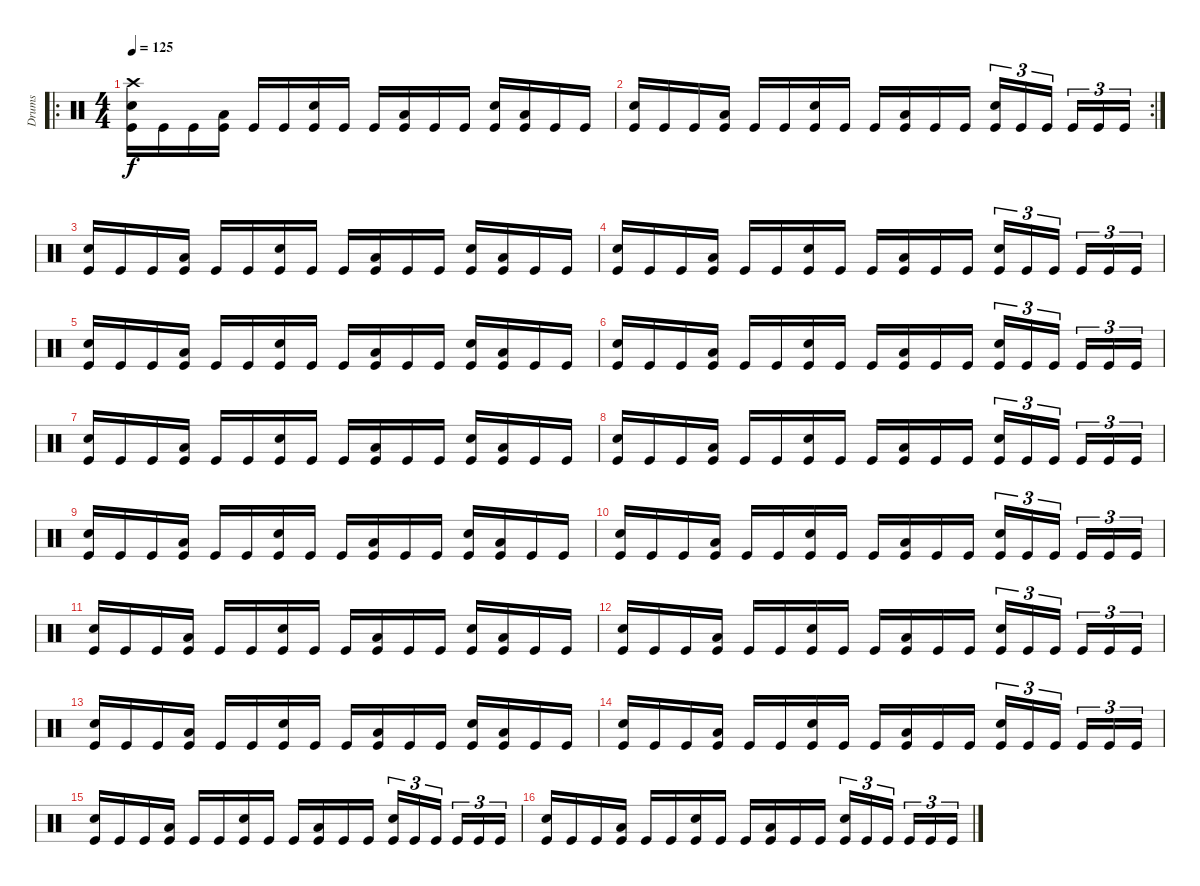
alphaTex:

\track ("Drums" "Drums") {instrument percussion}
\staff {score}
\articulation defaults
\ro
\ts (4 4)
\tempo 125
\clef neutral
\ks c
("Crash high (hit)" "Snare (hit) 2" "Kick (hit)").16{dy f} "Kick (hit)".16 "Kick (hit)".16 ("Low Floor Tom (hit)" "Kick (hit)").16 "Kick (hit)".16 "Kick (hit)".16 ("Snare (hit) 2" "Kick (hit)").16 "Kick (hit)".16 "Kick (hit)".16 ("Low Floor Tom (hit)" "Kick (hit)").16 "Kick (hit)".16 "Kick (hit)".16 ("Snare (hit) 2" "Kick (hit)").16 ("Low Floor Tom (hit)" "Kick (hit)").16 "Kick (hit)".16 "Kick (hit)".16 |
\rc 2
("Snare (hit) 2" "Kick (hit)").16 "Kick (hit)".16 "Kick (hit)".16 ("Low Floor Tom (hit)" "Kick (hit)").16 "Kick (hit)".16 "Kick (hit)".16 ("Snare (hit) 2" "Kick (hit)").16 "Kick (hit)".16 "Kick (hit)".16 ("Low Floor Tom (hit)" "Kick (hit)").16 "Kick (hit)".16 "Kick (hit)".16 ("Snare (hit) 2" "Kick (hit)").16{tu (3 2)} "Kick (hit)".16{tu (3 2)} "Kick (hit)".16{tu (3 2)} "Kick (hit)".16{tu (3 2)} "Kick (hit)".16{tu (3 2)} "Kick (hit)".16{tu (3 2)} |
("Snare (hit) 2" "Kick (hit)").16 "Kick (hit)".16 "Kick (hit)".16 ("Low Floor Tom (hit)" "Kick (hit)").16 "Kick (hit)".16 "Kick (hit)".16 ("Snare (hit) 2" "Kick (hit)").16 "Kick (hit)".16 "Kick (hit)".16 ("Low Floor Tom (hit)" "Kick (hit)").16 "Kick (hit)".16 "Kick (hit)".16 ("Snare (hit) 2" "Kick (hit)").16 ("Low Floor Tom (hit)" "Kick (hit)").16 "Kick (hit)".16 "Kick (hit)".16 |
("Snare (hit) 2" "Kick (hit)").16 "Kick (hit)".16 "Kick (hit)".16 ("Low Floor Tom (hit)" "Kick (hit)").16 "Kick (hit)".16 "Kick (hit)".16 ("Snare (hit) 2" "Kick (hit)").16 "Kick (hit)".16 "Kick (hit)".16 ("Low Floor Tom (hit)" "Kick (hit)").16 "Kick (hit)".16 "Kick (hit)".16 ("Snare (hit) 2" "Kick (hit)").16{tu (3 2)} "Kick (hit)".16{tu (3 2)} "Kick (hit)".16{tu (3 2)} "Kick (hit)".16{tu (3 2)} "Kick (hit)".16{tu (3 2)} "Kick (hit)".16{tu (3 2)} |
("Snare (hit) 2" "Kick (hit)").16 "Kick (hit)".16 "Kick (hit)".16 ("Low Floor Tom (hit)" "Kick (hit)").16 "Kick (hit)".16 "Kick (hit)".16 ("Snare (hit) 2" "Kick (hit)").16 "Kick (hit)".16 "Kick (hit)".16 ("Low Floor Tom (hit)" "Kick (hit)").16 "Kick (hit)".16 "Kick (hit)".16 ("Snare (hit) 2" "Kick (hit)").16 ("Low Floor Tom (hit)" "Kick (hit)").16 "Kick (hit)".16 "Kick (hit)".16 |
("Snare (hit) 2" "Kick (hit)").16 "Kick (hit)".16 "Kick (hit)".16 ("Low Floor Tom (hit)" "Kick (hit)").16 "Kick (hit)".16 "Kick (hit)".16 ("Snare (hit) 2" "Kick (hit)").16 "Kick (hit)".16 "Kick (hit)".16 ("Low Floor Tom (hit)" "Kick (hit)").16 "Kick (hit)".16 "Kick (hit)".16 ("Snare (hit) 2" "Kick (hit)").16{tu (3 2)} "Kick (hit)".16{tu (3 2)} "Kick (hit)".16{tu (3 2)} "Kick (hit)".16{tu (3 2)} "Kick (hit)".16{tu (3 2)} "Kick (hit)".16{tu (3 2)} |
("Snare (hit) 2" "Kick (hit)").16 "Kick (hit)".16 "Kick (hit)".16 ("Low Floor Tom (hit)" "Kick (hit)").16 "Kick (hit)".16 "Kick (hit)".16 ("Snare (hit) 2" "Kick (hit)").16 "Kick (hit)".16 "Kick (hit)".16 ("Low Floor Tom (hit)" "Kick (hit)").16 "Kick (hit)".16 "Kick (hit)".16 ("Snare (hit) 2" "Kick (hit)").16 ("Low Floor Tom (hit)" "Kick (hit)").16 "Kick (hit)".16 "Kick (hit)".16 |
("Snare (hit) 2" "Kick (hit)").16 "Kick (hit)".16 "Kick (hit)".16 ("Low Floor Tom (hit)" "Kick (hit)").16 "Kick (hit)".16 "Kick (hit)".16 ("Snare (hit) 2" "Kick (hit)").16 "Kick (hit)".16 "Kick (hit)".16 ("Low Floor Tom (hit)" "Kick (hit)").16 "Kick (hit)".16 "Kick (hit)".16 ("Snare (hit) 2" "Kick (hit)").16{tu (3 2)} "Kick (hit)".16{tu (3 2)} "Kick (hit)".16{tu (3 2)} "Kick (hit)".16{tu (3 2)} "Kick (hit)".16{tu (3 2)} "Kick (hit)".16{tu (3 2)} |
("Snare (hit) 2" "Kick (hit)").16 "Kick (hit)".16 "Kick (hit)".16 ("Low Floor Tom (hit)" "Kick (hit)").16 "Kick (hit)".16 "Kick (hit)".16 ("Snare (hit) 2" "Kick (hit)").16 "Kick (hit)".16 "Kick (hit)".16 ("Low Floor Tom (hit)" "Kick (hit)").16 "Kick (hit)".16 "Kick (hit)".16 ("Snare (hit) 2" "Kick (hit)").16 ("Low Floor Tom (hit)" "Kick (hit)").16 "Kick (hit)".16 "Kick (hit)".16 |
("Snare (hit) 2" "Kick (hit)").16 "Kick (hit)".16 "Kick (hit)".16 ("Low Floor Tom (hit)" "Kick (hit)").16 "Kick (hit)".16 "Kick (hit)".16 ("Snare (hit) 2" "Kick (hit)").16 "Kick (hit)".16 "Kick (hit)".16 ("Low Floor Tom (hit)" "Kick (hit)").16 "Kick (hit)".16 "Kick (hit)".16 ("Snare (hit) 2" "Kick (hit)").16{tu (3 2)} "Kick (hit)".16{tu (3 2)} "Kick (hit)".16{tu (3 2)} "Kick (hit)".16{tu (3 2)} "Kick (hit)".16{tu (3 2)} "Kick (hit)".16{tu (3 2)} |
("Snare (hit) 2" "Kick (hit)").16 "Kick (hit)".16 "Kick (hit)".16 ("Low Floor Tom (hit)" "Kick (hit)").16 "Kick (hit)".16 "Kick (hit)".16 ("Snare (hit) 2" "Kick (hit)").16 "Kick (hit)".16 "Kick (hit)".16 ("Low Floor Tom (hit)" "Kick (hit)").16 "Kick (hit)".16 "Kick (hit)".16 ("Snare (hit) 2" "Kick (hit)").16 ("Low Floor Tom (hit)" "Kick (hit)").16 "Kick (hit)".16 "Kick (hit)".16 |
("Snare (hit) 2" "Kick (hit)").16 "Kick (hit)".16 "Kick (hit)".16 ("Low Floor Tom (hit)" "Kick (hit)").16 "Kick (hit)".16 "Kick (hit)".16 ("Snare (hit) 2" "Kick (hit)").16 "Kick (hit)".16 "Kick (hit)".16 ("Low Floor Tom (hit)" "Kick (hit)").16 "Kick (hit)".16 "Kick (hit)".16 ("Snare (hit) 2" "Kick (hit)").16{tu (3 2)} "Kick (hit)".16{tu (3 2)} "Kick (hit)".16{tu (3 2)} "Kick (hit)".16{tu (3 2)} "Kick (hit)".16{tu (3 2)} "Kick (hit)".16{tu (3 2)} |
("Snare (hit) 2" "Kick (hit)").16 "Kick (hit)".16 "Kick (hit)".16 ("Low Floor Tom (hit)" "Kick (hit)").16 "Kick (hit)".16 "Kick (hit)".16 ("Snare (hit) 2" "Kick (hit)").16 "Kick (hit)".16 "Kick (hit)".16 ("Low Floor Tom (hit)" "Kick (hit)").16 "Kick (hit)".16 "Kick (hit)".16 ("Snare (hit) 2" "Kick (hit)").16 ("Low Floor Tom (hit)" "Kick (hit)").16 "Kick (hit)".16 "Kick (hit)".16 |
("Snare (hit) 2" "Kick (hit)").16 "Kick (hit)".16 "Kick (hit)".16 ("Low Floor Tom (hit)" "Kick (hit)").16 "Kick (hit)".16 "Kick (hit)".16 ("Snare (hit) 2" "Kick (hit)").16 "Kick (hit)".16 "Kick (hit)".16 ("Low Floor Tom (hit)" "Kick (hit)").16 "Kick (hit)".16 "Kick (hit)".16 ("Snare (hit) 2" "Kick (hit)").16{tu (3 2)} "Kick (hit)".16{tu (3 2)} "Kick (hit)".16{tu (3 2)} "Kick (hit)".16{tu (3 2)} "Kick (hit)".16{tu (3 2)} "Kick (hit)".16{tu (3 2)} |
("Snare (hit) 2" "Kick (hit)").16 "Kick (hit)".16 "Kick (hit)".16 ("Low Floor Tom (hit)" "Kick (hit)").16 "Kick (hit)".16 "Kick (hit)".16 ("Snare (hit) 2" "Kick (hit)").16 "Kick (hit)".16 "Kick (hit)".16 ("Low Floor Tom (hit)" "Kick (hit)").16 "Kick (hit)".16 "Kick (hit)".16 ("Snare (hit) 2" "Kick (hit)").16{tu (3 2)} "Kick (hit)".16{tu (3 2)} "Kick (hit)".16{tu (3 2)} "Kick (hit)".16{tu (3 2)} "Kick (hit)".16{tu (3 2)} "Kick (hit)".16{tu (3 2)} |
("Snare (hit) 2" "Kick (hit)").16 "Kick (hit)".16 "Kick (hit)".16 ("Low Floor Tom (hit)" "Kick (hit)").16 "Kick (hit)".16 "Kick (hit)".16 ("Snare (hit) 2" "Kick (hit)").16 "Kick (hit)".16 "Kick (hit)".16 ("Low Floor Tom (hit)" "Kick (hit)").16 "Kick (hit)".16 "Kick (hit)".16 ("Snare (hit) 2" "Kick (hit)").16{tu (3 2)} "Kick (hit)".16{tu (3 2)} "Kick (hit)".16{tu (3 2)} "Kick (hit)".16{tu (3 2)} "Kick (hit)".16{tu (3 2)} "Kick (hit)".16{tu (3 2)}
